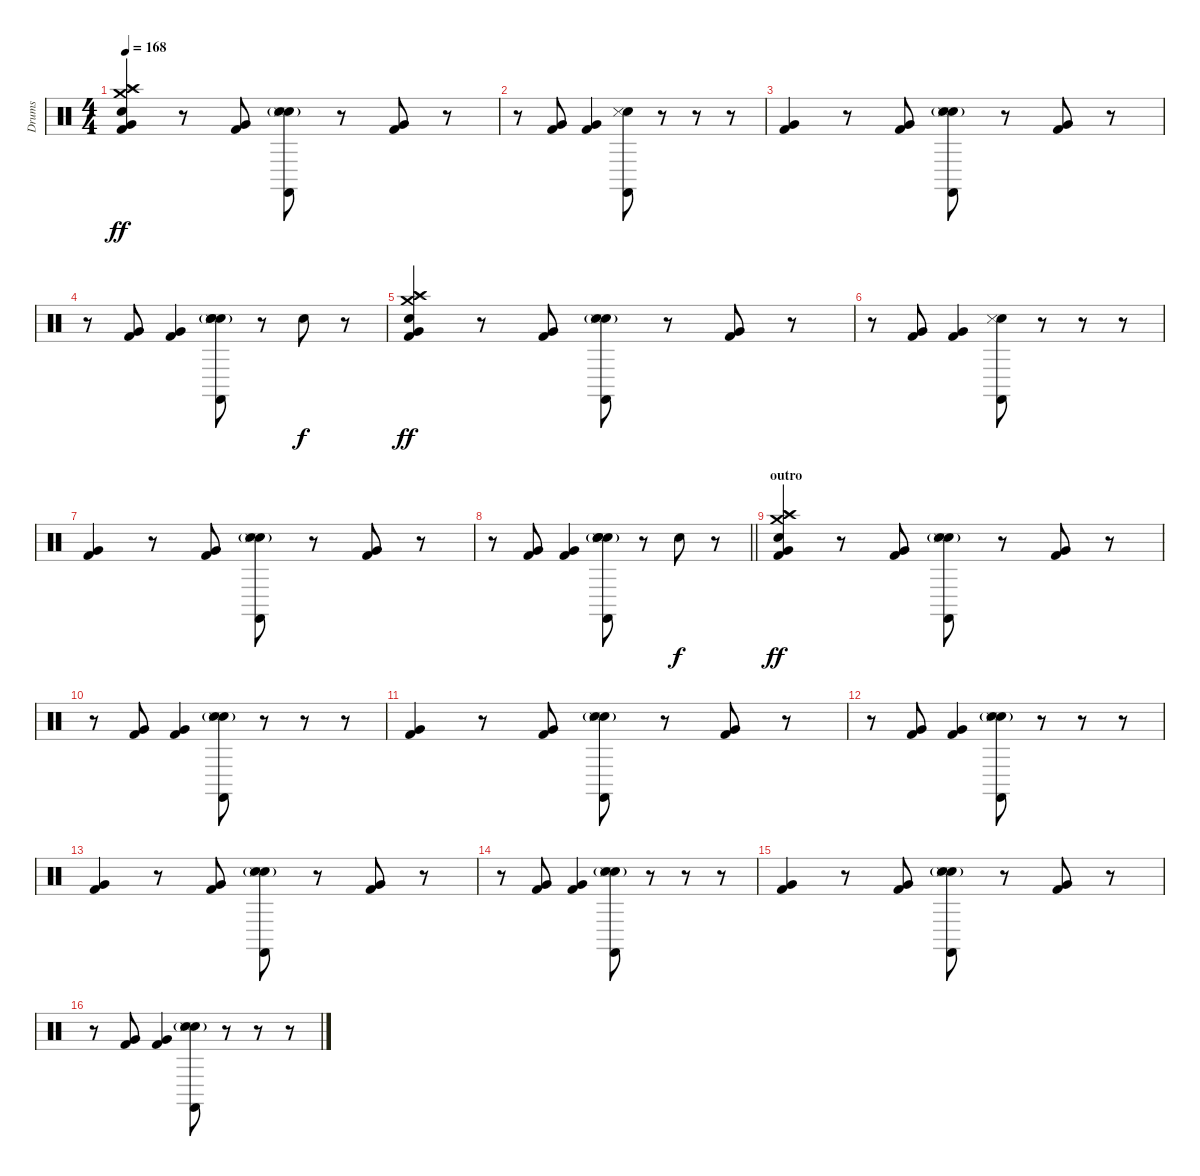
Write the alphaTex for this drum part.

\track ("Drums" "Drums") {instrument percussion}
\staff {score}
\articulation defaults
\ts (4 4)
\tempo 168
\clef neutral
\ks c
("Hand Clap (hit)" "Crash medium (hit)" "Splash (hit)" "Crash high (hit)" "Very Low Tom (hit)" "Kick (hit) 2").4{dy ff} r.8 ("Very Low Tom (hit)" "Kick (hit) 2").8 ("Snare (hit) 2" "Hand Clap (hit)"{g} "Castanets (hit)" "Snare (side stick) 3").8 r.8 ("Very Low Tom (hit)" "Kick (hit) 2").8 r.8 |
r.8 ("Very Low Tom (hit)" "Kick (hit) 2").8 ("Very Low Tom (hit)" "Kick (hit) 2").4 ("Snare (hit) 2" "Castanets (hit)" "Snare (side stick) 3").8 r.8 r.8 r.8 |
("Very Low Tom (hit)" "Kick (hit) 2").4 r.8 ("Very Low Tom (hit)" "Kick (hit) 2").8 ("Snare (hit) 2" "Hand Clap (hit)"{g} "Castanets (hit)" "Snare (side stick) 3").8 r.8 ("Very Low Tom (hit)" "Kick (hit) 2").8 r.8 |
r.8 ("Very Low Tom (hit)" "Kick (hit) 2").8 ("Very Low Tom (hit)" "Kick (hit) 2").4 ("Hand Clap (hit)" "Snare (hit) 2" "Hand Clap (hit)"{g} "Castanets (hit)" "Snare (side stick) 3").8 r.8 "Hand Clap (hit)".8{dy f} r.8 |
("Hand Clap (hit)" "Crash medium (hit)" "Crash high (hit)" "Splash (hit)" "Very Low Tom (hit)" "Kick (hit) 2").4{dy ff} r.8 ("Very Low Tom (hit)" "Kick (hit) 2").8 ("Snare (hit) 2" "Hand Clap (hit)"{g} "Castanets (hit)" "Snare (side stick) 3").8 r.8 ("Very Low Tom (hit)" "Kick (hit) 2").8 r.8 |
r.8 ("Very Low Tom (hit)" "Kick (hit) 2").8 ("Very Low Tom (hit)" "Kick (hit) 2").4 ("Snare (hit) 2" "Castanets (hit)" "Snare (side stick) 3").8 r.8 r.8 r.8 |
("Very Low Tom (hit)" "Kick (hit) 2").4 r.8 ("Very Low Tom (hit)" "Kick (hit) 2").8 ("Snare (hit) 2" "Hand Clap (hit)"{g} "Castanets (hit)" "Snare (side stick) 3").8 r.8 ("Very Low Tom (hit)" "Kick (hit) 2").8 r.8 |
\barLineRight lightlight
r.8 ("Very Low Tom (hit)" "Kick (hit) 2").8 ("Very Low Tom (hit)" "Kick (hit) 2").4 ("Hand Clap (hit)" "Snare (hit) 2" "Hand Clap (hit)"{g} "Castanets (hit)" "Snare (side stick) 3").8 r.8 "Hand Clap (hit)".8{dy f} r.8 |
\section ("" "outro")
("Hand Clap (hit)" "Crash high (hit)" "Splash (hit)" "Crash medium (hit)" "Very Low Tom (hit)" "Kick (hit) 2").4{dy ff} r.8 ("Very Low Tom (hit)" "Kick (hit) 2").8 ("Snare (hit) 2" "Hand Clap (hit)"{g} "Castanets (hit)" "Snare (side stick) 3").8 r.8 ("Very Low Tom (hit)" "Kick (hit) 2").8 r.8 |
r.8 ("Very Low Tom (hit)" "Kick (hit) 2").8 ("Very Low Tom (hit)" "Kick (hit) 2").4 ("Snare (hit) 2" "Hand Clap (hit)"{g} "Castanets (hit)" "Snare (side stick) 3").8 r.8 r.8 r.8 |
("Very Low Tom (hit)" "Kick (hit) 2").4 r.8 ("Very Low Tom (hit)" "Kick (hit) 2").8 ("Snare (hit) 2" "Hand Clap (hit)"{g} "Castanets (hit)" "Snare (side stick) 3").8 r.8 ("Very Low Tom (hit)" "Kick (hit) 2").8 r.8 |
r.8 ("Very Low Tom (hit)" "Kick (hit) 2").8 ("Very Low Tom (hit)" "Kick (hit) 2").4 ("Snare (hit) 2" "Hand Clap (hit)"{g} "Castanets (hit)" "Snare (side stick) 3").8 r.8 r.8 r.8 |
("Very Low Tom (hit)" "Kick (hit) 2").4 r.8 ("Very Low Tom (hit)" "Kick (hit) 2").8 ("Snare (hit) 2" "Hand Clap (hit)"{g} "Castanets (hit)" "Snare (side stick) 3").8 r.8 ("Very Low Tom (hit)" "Kick (hit) 2").8 r.8 |
r.8 ("Very Low Tom (hit)" "Kick (hit) 2").8 ("Very Low Tom (hit)" "Kick (hit) 2").4 ("Snare (hit) 2" "Hand Clap (hit)"{g} "Castanets (hit)" "Snare (side stick) 3").8 r.8 r.8 r.8 |
("Very Low Tom (hit)" "Kick (hit) 2").4 r.8 ("Very Low Tom (hit)" "Kick (hit) 2").8 ("Snare (hit) 2" "Hand Clap (hit)"{g} "Castanets (hit)" "Snare (side stick) 3").8 r.8 ("Very Low Tom (hit)" "Kick (hit) 2").8 r.8 |
r.8 ("Very Low Tom (hit)" "Kick (hit) 2").8 ("Very Low Tom (hit)" "Kick (hit) 2").4 ("Snare (hit) 2" "Hand Clap (hit)"{g} "Castanets (hit)" "Snare (side stick) 3").8 r.8 r.8 r.8
